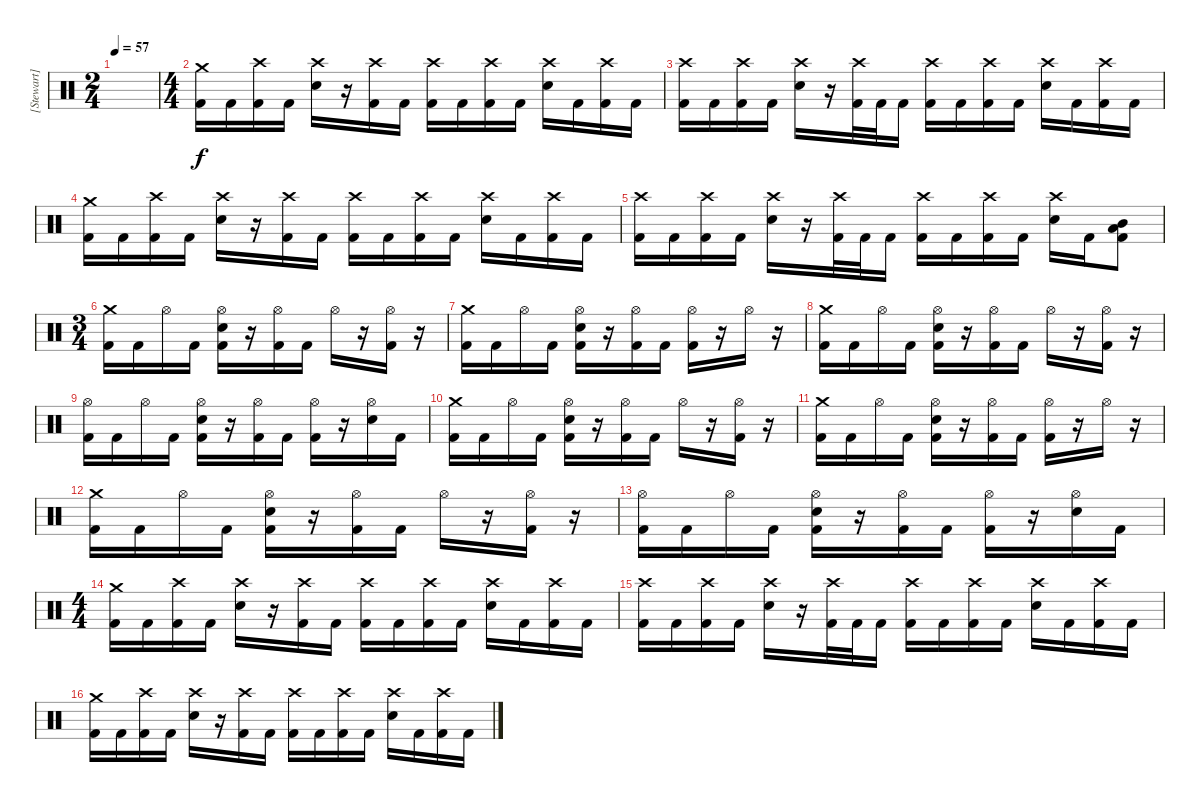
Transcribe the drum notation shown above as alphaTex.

\track ("[Stewart]" "[Stewart]") {instrument percussion}
\staff {score}
\articulation defaults
\ts (2 4)
\tempo 57
\clef neutral
\ks c
|
\ts (4 4)
("Kick (hit) 2" "Crash medium (hit)").16 "Kick (hit) 2".16 ("Kick (hit) 2" "Crash high (hit)").16 "Kick (hit) 2".16 ("Electric Snare (hit)" "Crash high (hit)").16 r.16 ("Kick (hit) 2" "Crash high (hit)").16 "Kick (hit) 2".16 ("Kick (hit) 2" "Crash high (hit)").16 "Kick (hit) 2".16 ("Kick (hit) 2" "Crash high (hit)").16 "Kick (hit) 2".16 ("Electric Snare (hit)" "Crash high (hit)").16 "Kick (hit) 2".16 ("Kick (hit) 2" "Crash high (hit)").16 "Kick (hit) 2".16 |
("Kick (hit) 2" "Crash high (hit)").16 "Kick (hit) 2".16 ("Kick (hit) 2" "Crash high (hit)").16 "Kick (hit) 2".16 ("Electric Snare (hit)" "Crash high (hit)").16 r.16 ("Kick (hit) 2" "Crash high (hit)").32 "Kick (hit) 2".32 "Kick (hit) 2".16 ("Kick (hit) 2" "Crash high (hit)").16 "Kick (hit) 2".16 ("Kick (hit) 2" "Crash high (hit)").16 "Kick (hit) 2".16 ("Electric Snare (hit)" "Crash high (hit)").16 "Kick (hit) 2".16 ("Kick (hit) 2" "Crash high (hit)").16 "Kick (hit) 2".16 |
("Kick (hit) 2" "Crash medium (hit)").16 "Kick (hit) 2".16 ("Kick (hit) 2" "Crash high (hit)").16 "Kick (hit) 2".16 ("Electric Snare (hit)" "Crash high (hit)").16 r.16 ("Kick (hit) 2" "Crash high (hit)").16 "Kick (hit) 2".16 ("Kick (hit) 2" "Crash high (hit)").16 "Kick (hit) 2".16 ("Kick (hit) 2" "Crash high (hit)").16 "Kick (hit) 2".16 ("Electric Snare (hit)" "Crash high (hit)").16 "Kick (hit) 2".16 ("Kick (hit) 2" "Crash high (hit)").16 "Kick (hit) 2".16 |
("Kick (hit) 2" "Crash high (hit)").16 "Kick (hit) 2".16 ("Kick (hit) 2" "Crash high (hit)").16 "Kick (hit) 2".16 ("Electric Snare (hit)" "Crash high (hit)").16 r.16 ("Kick (hit) 2" "Crash high (hit)").32 "Kick (hit) 2".32 "Kick (hit) 2".16 ("Kick (hit) 2" "Crash high (hit)").16 "Kick (hit) 2".16 ("Kick (hit) 2" "Crash high (hit)").16 "Kick (hit) 2".16 ("Electric Snare (hit)" "Crash high (hit)").16 "Kick (hit) 2".16 ("Mid Tom (hit)" "Low Tom (hit)" "Kick (hit) 2").8 |
\ts (3 4)
("Kick (hit) 2" "Crash medium (hit)").16 "Kick (hit) 2".16 "Hi-Hat (open)".16 "Kick (hit) 2".16 ("Kick (hit) 2" "Electric Snare (hit)" "Hi-Hat (open)").16 r.16 ("Kick (hit) 2" "Hi-Hat (open)").16 "Kick (hit) 2".16 "Hi-Hat (open)".16 r.16 ("Kick (hit) 2" "Hi-Hat (open)").16 r.16 |
("Kick (hit) 2" "Crash medium (hit)").16 "Kick (hit) 2".16 "Hi-Hat (open)".16 "Kick (hit) 2".16 ("Kick (hit) 2" "Electric Snare (hit)" "Hi-Hat (open)").16 r.16 ("Kick (hit) 2" "Hi-Hat (open)").16 "Kick (hit) 2".16 ("Kick (hit) 2" "Hi-Hat (open)").16 r.16 "Hi-Hat (open)".16 r.16 |
("Kick (hit) 2" "Crash medium (hit)").16 "Kick (hit) 2".16 "Hi-Hat (open)".16 "Kick (hit) 2".16 ("Kick (hit) 2" "Electric Snare (hit)" "Hi-Hat (open)").16 r.16 ("Kick (hit) 2" "Hi-Hat (open)").16 "Kick (hit) 2".16 "Hi-Hat (open)".16 r.16 ("Kick (hit) 2" "Hi-Hat (open)").16 r.16 |
("Kick (hit) 2" "Hi-Hat (open)").16 "Kick (hit) 2".16 "Hi-Hat (open)".16 "Kick (hit) 2".16 ("Kick (hit) 2" "Electric Snare (hit)" "Hi-Hat (open)").16 r.16 ("Kick (hit) 2" "Hi-Hat (open)").16 "Kick (hit) 2".16 ("Kick (hit) 2" "Hi-Hat (open)").16 r.16 ("Electric Snare (hit)" "Hi-Hat (open)").16 "Kick (hit) 2".16 |
("Kick (hit) 2" "Crash medium (hit)").16 "Kick (hit) 2".16 "Hi-Hat (open)".16 "Kick (hit) 2".16 ("Kick (hit) 2" "Electric Snare (hit)" "Hi-Hat (open)").16 r.16 ("Kick (hit) 2" "Hi-Hat (open)").16 "Kick (hit) 2".16 "Hi-Hat (open)".16 r.16 ("Kick (hit) 2" "Hi-Hat (open)").16 r.16 |
("Kick (hit) 2" "Crash medium (hit)").16 "Kick (hit) 2".16 "Hi-Hat (open)".16 "Kick (hit) 2".16 ("Kick (hit) 2" "Electric Snare (hit)" "Hi-Hat (open)").16 r.16 ("Kick (hit) 2" "Hi-Hat (open)").16 "Kick (hit) 2".16 ("Kick (hit) 2" "Hi-Hat (open)").16 r.16 "Hi-Hat (open)".16 r.16 |
("Kick (hit) 2" "Crash medium (hit)").16 "Kick (hit) 2".16 "Hi-Hat (open)".16 "Kick (hit) 2".16 ("Kick (hit) 2" "Electric Snare (hit)" "Hi-Hat (open)").16 r.16 ("Kick (hit) 2" "Hi-Hat (open)").16 "Kick (hit) 2".16 "Hi-Hat (open)".16 r.16 ("Kick (hit) 2" "Hi-Hat (open)").16 r.16 |
("Kick (hit) 2" "Hi-Hat (open)").16 "Kick (hit) 2".16 "Hi-Hat (open)".16 "Kick (hit) 2".16 ("Kick (hit) 2" "Electric Snare (hit)" "Hi-Hat (open)").16 r.16 ("Kick (hit) 2" "Hi-Hat (open)").16 "Kick (hit) 2".16 ("Kick (hit) 2" "Hi-Hat (open)").16 r.16 ("Electric Snare (hit)" "Hi-Hat (open)").16 "Kick (hit) 2".16 |
\ts (4 4)
("Kick (hit) 2" "Crash medium (hit)").16 "Kick (hit) 2".16 ("Kick (hit) 2" "Crash high (hit)").16 "Kick (hit) 2".16 ("Electric Snare (hit)" "Crash high (hit)").16 r.16 ("Kick (hit) 2" "Crash high (hit)").16 "Kick (hit) 2".16 ("Kick (hit) 2" "Crash high (hit)").16 "Kick (hit) 2".16 ("Kick (hit) 2" "Crash high (hit)").16 "Kick (hit) 2".16 ("Electric Snare (hit)" "Crash high (hit)").16 "Kick (hit) 2".16 ("Kick (hit) 2" "Crash high (hit)").16 "Kick (hit) 2".16 |
("Kick (hit) 2" "Crash high (hit)").16 "Kick (hit) 2".16 ("Kick (hit) 2" "Crash high (hit)").16 "Kick (hit) 2".16 ("Electric Snare (hit)" "Crash high (hit)").16 r.16 ("Kick (hit) 2" "Crash high (hit)").32 "Kick (hit) 2".32 "Kick (hit) 2".16 ("Kick (hit) 2" "Crash high (hit)").16 "Kick (hit) 2".16 ("Kick (hit) 2" "Crash high (hit)").16 "Kick (hit) 2".16 ("Electric Snare (hit)" "Crash high (hit)").16 "Kick (hit) 2".16 ("Kick (hit) 2" "Crash high (hit)").16 "Kick (hit) 2".16 |
("Kick (hit) 2" "Crash medium (hit)").16 "Kick (hit) 2".16 ("Kick (hit) 2" "Crash high (hit)").16 "Kick (hit) 2".16 ("Electric Snare (hit)" "Crash high (hit)").16 r.16 ("Kick (hit) 2" "Crash high (hit)").16 "Kick (hit) 2".16 ("Kick (hit) 2" "Crash high (hit)").16 "Kick (hit) 2".16 ("Kick (hit) 2" "Crash high (hit)").16 "Kick (hit) 2".16 ("Electric Snare (hit)" "Crash high (hit)").16 "Kick (hit) 2".16 ("Kick (hit) 2" "Crash high (hit)").16 "Kick (hit) 2".16
